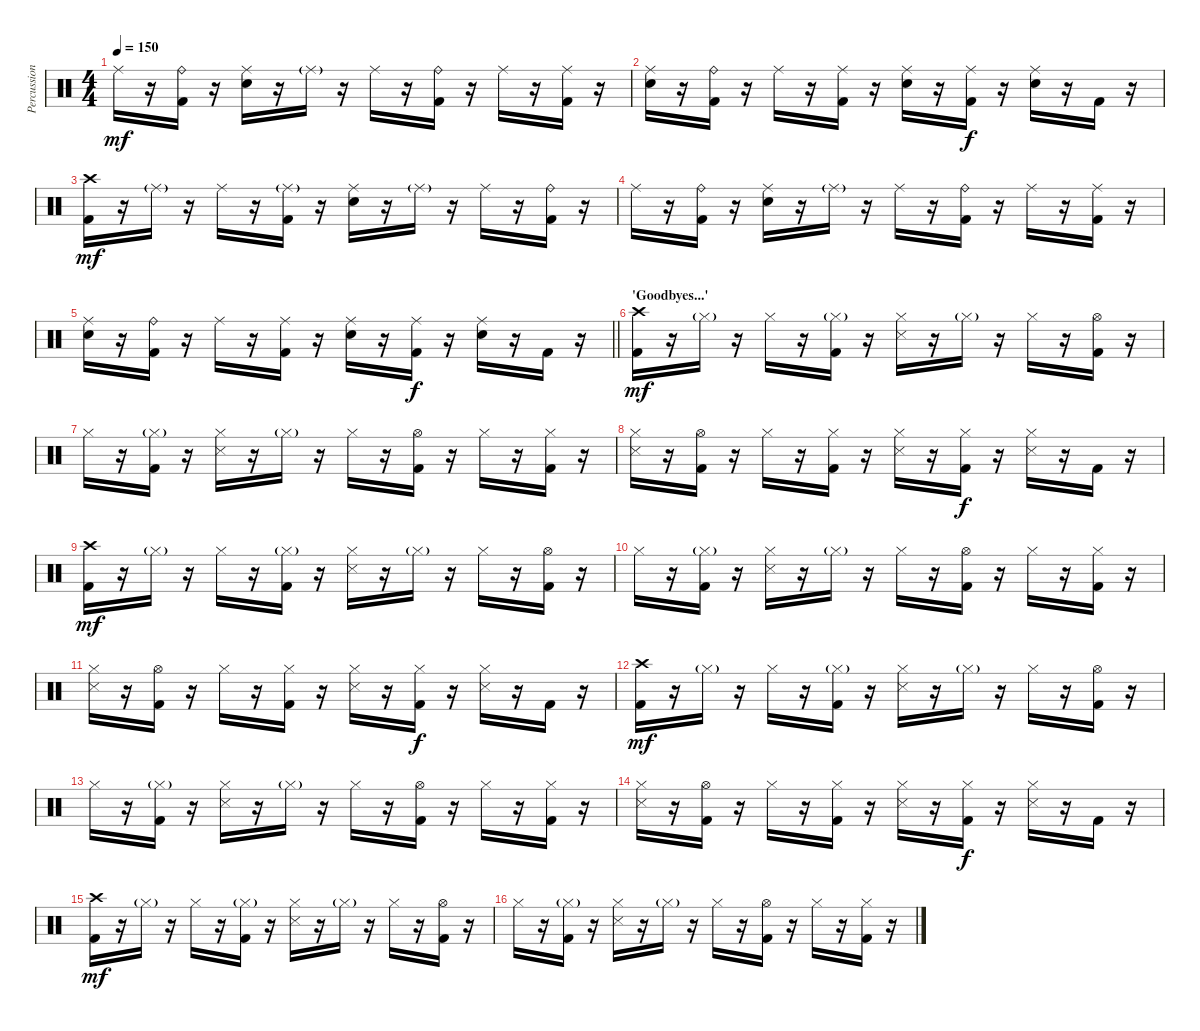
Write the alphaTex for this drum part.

\track ("Percussion" "Percussion") {instrument percussion}
\staff {score}
\articulation defaults
\ts (4 4)
\tempo 150
\clef neutral
\ks c "Ride (middle)".16{dy mf}
r.16 ("Ride (bell)" "Kick (hit) 2").16 r.16 ("Ride (middle)" "Snare (hit) 2").16 r.16 "Ride (middle)"{g}.16 r.16 "Ride (middle)".16 r.16 ("Ride (bell)" "Kick (hit) 2").16 r.16 "Ride (middle)".16 r.16 ("Ride (middle)" "Kick (hit) 2").16 r.16 |
("Ride (middle)" "Snare (hit) 2").16 r.16 ("Ride (bell)" "Kick (hit) 2").16 r.16 "Ride (middle)".16 r.16 ("Ride (middle)" "Kick (hit) 2").16 r.16 ("Ride (middle)" "Snare (hit) 2").16 r.16 ("Ride (middle)" "Kick (hit) 2").16{dy f} r.16 ("Ride (middle)" "Snare (hit) 2").16 r.16 "Kick (hit) 2".16 r.16 |
("Crash high (hit)" "Kick (hit) 2").16{dy mf} r.16 "Ride (middle)"{g}.16 r.16 "Ride (middle)".16 r.16 ("Ride (middle)"{g} "Kick (hit) 2").16 r.16 ("Ride (middle)" "Snare (hit) 2").16 r.16 "Ride (middle)"{g}.16 r.16 "Ride (middle)".16 r.16 ("Ride (bell)" "Kick (hit) 2").16 r.16 |
"Ride (middle)".16 r.16 ("Ride (bell)" "Kick (hit) 2").16 r.16 ("Ride (middle)" "Snare (hit) 2").16 r.16 "Ride (middle)"{g}.16 r.16 "Ride (middle)".16 r.16 ("Ride (bell)" "Kick (hit) 2").16 r.16 "Ride (middle)".16 r.16 ("Ride (middle)" "Kick (hit) 2").16 r.16 |
\barLineRight lightlight
("Ride (middle)" "Snare (hit) 2").16 r.16 ("Ride (bell)" "Kick (hit) 2").16 r.16 "Ride (middle)".16 r.16 ("Ride (middle)" "Kick (hit) 2").16 r.16 ("Ride (middle)" "Snare (hit) 2").16 r.16 ("Ride (middle)" "Kick (hit) 2").16{dy f} r.16 ("Ride (middle)" "Snare (hit) 2").16 r.16 "Kick (hit) 2".16 r.16 |
\section ("" "'Goodbyes...'")
("Crash high (hit)" "Kick (hit) 2").16{dy mf} r.16 "Hi-Hat (closed)"{g}.16 r.16 "Hi-Hat (closed)".16 r.16 ("Hi-Hat (closed)"{g} "Kick (hit) 2").16 r.16 ("Hi-Hat (closed)" "Snare (side stick) 3").16 r.16 "Hi-Hat (closed)"{g}.16 r.16 "Hi-Hat (closed)".16 r.16 ("Hi-Hat (open)" "Kick (hit) 2").16 r.16 |
"Hi-Hat (closed)".16 r.16 ("Hi-Hat (closed)"{g} "Kick (hit) 2").16 r.16 ("Hi-Hat (closed)" "Snare (side stick) 3").16 r.16 "Hi-Hat (closed)"{g}.16 r.16 "Hi-Hat (closed)".16 r.16 ("Hi-Hat (open)" "Kick (hit) 2").16 r.16 "Hi-Hat (closed)".16 r.16 ("Hi-Hat (closed)" "Kick (hit) 2").16 r.16 |
("Hi-Hat (closed)" "Snare (side stick) 3").16 r.16 ("Hi-Hat (open)" "Kick (hit) 2").16 r.16 "Hi-Hat (closed)".16 r.16 ("Hi-Hat (closed)" "Kick (hit) 2").16 r.16 ("Hi-Hat (closed)" "Snare (side stick) 3").16 r.16 ("Hi-Hat (closed)" "Kick (hit) 2").16{dy f} r.16 ("Hi-Hat (closed)" "Snare (side stick) 3").16 r.16 "Kick (hit) 2".16 r.16 |
("Crash high (hit)" "Kick (hit) 2").16{dy mf} r.16 "Hi-Hat (closed)"{g}.16 r.16 "Hi-Hat (closed)".16 r.16 ("Hi-Hat (closed)"{g} "Kick (hit) 2").16 r.16 ("Hi-Hat (closed)" "Snare (side stick) 3").16 r.16 "Hi-Hat (closed)"{g}.16 r.16 "Hi-Hat (closed)".16 r.16 ("Hi-Hat (open)" "Kick (hit) 2").16 r.16 |
"Hi-Hat (closed)".16 r.16 ("Hi-Hat (closed)"{g} "Kick (hit) 2").16 r.16 ("Hi-Hat (closed)" "Snare (side stick) 3").16 r.16 "Hi-Hat (closed)"{g}.16 r.16 "Hi-Hat (closed)".16 r.16 ("Hi-Hat (open)" "Kick (hit) 2").16 r.16 "Hi-Hat (closed)".16 r.16 ("Hi-Hat (closed)" "Kick (hit) 2").16 r.16 |
("Hi-Hat (closed)" "Snare (side stick) 3").16 r.16 ("Hi-Hat (open)" "Kick (hit) 2").16 r.16 "Hi-Hat (closed)".16 r.16 ("Hi-Hat (closed)" "Kick (hit) 2").16 r.16 ("Hi-Hat (closed)" "Snare (side stick) 3").16 r.16 ("Hi-Hat (closed)" "Kick (hit) 2").16{dy f} r.16 ("Hi-Hat (closed)" "Snare (side stick) 3").16 r.16 "Kick (hit) 2".16 r.16 |
("Crash high (hit)" "Kick (hit) 2").16{dy mf} r.16 "Hi-Hat (closed)"{g}.16 r.16 "Hi-Hat (closed)".16 r.16 ("Hi-Hat (closed)"{g} "Kick (hit) 2").16 r.16 ("Hi-Hat (closed)" "Snare (side stick) 3").16 r.16 "Hi-Hat (closed)"{g}.16 r.16 "Hi-Hat (closed)".16 r.16 ("Hi-Hat (open)" "Kick (hit) 2").16 r.16 |
"Hi-Hat (closed)".16 r.16 ("Hi-Hat (closed)"{g} "Kick (hit) 2").16 r.16 ("Hi-Hat (closed)" "Snare (side stick) 3").16 r.16 "Hi-Hat (closed)"{g}.16 r.16 "Hi-Hat (closed)".16 r.16 ("Hi-Hat (open)" "Kick (hit) 2").16 r.16 "Hi-Hat (closed)".16 r.16 ("Hi-Hat (closed)" "Kick (hit) 2").16 r.16 |
("Hi-Hat (closed)" "Snare (side stick) 3").16 r.16 ("Hi-Hat (open)" "Kick (hit) 2").16 r.16 "Hi-Hat (closed)".16 r.16 ("Hi-Hat (closed)" "Kick (hit) 2").16 r.16 ("Hi-Hat (closed)" "Snare (side stick) 3").16 r.16 ("Hi-Hat (closed)" "Kick (hit) 2").16{dy f} r.16 ("Hi-Hat (closed)" "Snare (side stick) 3").16 r.16 "Kick (hit) 2".16 r.16 |
("Crash high (hit)" "Kick (hit) 2").16{dy mf} r.16 "Hi-Hat (closed)"{g}.16 r.16 "Hi-Hat (closed)".16 r.16 ("Hi-Hat (closed)"{g} "Kick (hit) 2").16 r.16 ("Hi-Hat (closed)" "Snare (side stick) 3").16 r.16 "Hi-Hat (closed)"{g}.16 r.16 "Hi-Hat (closed)".16 r.16 ("Hi-Hat (open)" "Kick (hit) 2").16 r.16 |
"Hi-Hat (closed)".16 r.16 ("Hi-Hat (closed)"{g} "Kick (hit) 2").16 r.16 ("Hi-Hat (closed)" "Snare (side stick) 3").16 r.16 "Hi-Hat (closed)"{g}.16 r.16 "Hi-Hat (closed)".16 r.16 ("Hi-Hat (open)" "Kick (hit) 2").16 r.16 "Hi-Hat (closed)".16 r.16 ("Hi-Hat (closed)" "Kick (hit) 2").16 r.16
